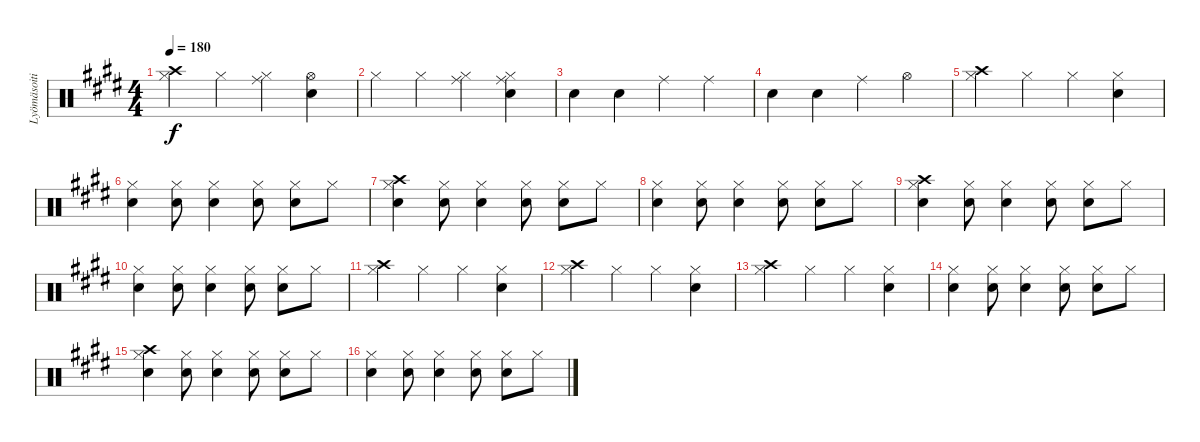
\track ("Lyömäsoitin" "Lyömäsoiti") {instrument percussion}
\staff {score}
\articulation defaults
\ts (4 4)
\tempo 180
\clef neutral
\ks e
("Crash high (hit)" "Hi-Hat (closed)").4{dy f} "Hi-Hat (closed)".4 ("Ride (middle)" "Hi-Hat (closed)").4 ("Hi-Hat (open)" "Electric Snare (hit)").4 |
"Hi-Hat (closed)".4 "Hi-Hat (closed)".4 ("Ride (middle)" "Hi-Hat (closed)").4 ("Ride (middle)" "Hi-Hat (closed)" "Electric Snare (hit)").4 |
"Electric Snare (hit)".4 "Electric Snare (hit)".4 "Ride (middle)".4 "Ride (middle)".4 |
"Electric Snare (hit)".4 "Electric Snare (hit)".4 "Ride (middle)".4 "Hi-Hat (open)".4 |
("Crash high (hit)" "Hi-Hat (closed)").4 "Hi-Hat (closed)".4 "Hi-Hat (closed)".4 ("Hi-Hat (closed)" "Electric Snare (hit)").4 |
("Hi-Hat (closed)" "Electric Snare (hit)").4 ("Hi-Hat (closed)" "Electric Snare (hit)").8 ("Hi-Hat (closed)" "Electric Snare (hit)").4 ("Hi-Hat (closed)" "Electric Snare (hit)").8 ("Hi-Hat (closed)" "Electric Snare (hit)").8 "Hi-Hat (closed)".8 |
("Crash high (hit)" "Hi-Hat (closed)" "Electric Snare (hit)").4 ("Hi-Hat (closed)" "Electric Snare (hit)").8 ("Hi-Hat (closed)" "Electric Snare (hit)").4 ("Hi-Hat (closed)" "Electric Snare (hit)").8 ("Hi-Hat (closed)" "Electric Snare (hit)").8 "Hi-Hat (closed)".8 |
("Hi-Hat (closed)" "Electric Snare (hit)").4 ("Hi-Hat (closed)" "Electric Snare (hit)").8 ("Hi-Hat (closed)" "Electric Snare (hit)").4 ("Hi-Hat (closed)" "Electric Snare (hit)").8 ("Hi-Hat (closed)" "Electric Snare (hit)").8 "Hi-Hat (closed)".8 |
("Crash high (hit)" "Hi-Hat (closed)" "Electric Snare (hit)").4 ("Hi-Hat (closed)" "Electric Snare (hit)").8 ("Hi-Hat (closed)" "Electric Snare (hit)").4 ("Hi-Hat (closed)" "Electric Snare (hit)").8 ("Hi-Hat (closed)" "Electric Snare (hit)").8 "Hi-Hat (closed)".8 |
("Hi-Hat (closed)" "Electric Snare (hit)").4 ("Hi-Hat (closed)" "Electric Snare (hit)").8 ("Hi-Hat (closed)" "Electric Snare (hit)").4 ("Hi-Hat (closed)" "Electric Snare (hit)").8 ("Hi-Hat (closed)" "Electric Snare (hit)").8 "Hi-Hat (closed)".8 |
("Crash high (hit)" "Hi-Hat (closed)").4 "Hi-Hat (closed)".4 "Hi-Hat (closed)".4 ("Hi-Hat (closed)" "Electric Snare (hit)").4 |
("Crash high (hit)" "Hi-Hat (closed)").4 "Hi-Hat (closed)".4 "Hi-Hat (closed)".4 ("Hi-Hat (closed)" "Electric Snare (hit)").4 |
("Crash high (hit)" "Hi-Hat (closed)").4 "Hi-Hat (closed)".4 "Hi-Hat (closed)".4 ("Hi-Hat (closed)" "Electric Snare (hit)").4 |
("Hi-Hat (closed)" "Electric Snare (hit)").4 ("Hi-Hat (closed)" "Electric Snare (hit)").8 ("Hi-Hat (closed)" "Electric Snare (hit)").4 ("Hi-Hat (closed)" "Electric Snare (hit)").8 ("Hi-Hat (closed)" "Electric Snare (hit)").8 "Hi-Hat (closed)".8 |
("Crash high (hit)" "Hi-Hat (closed)" "Electric Snare (hit)").4 ("Hi-Hat (closed)" "Electric Snare (hit)").8 ("Hi-Hat (closed)" "Electric Snare (hit)").4 ("Hi-Hat (closed)" "Electric Snare (hit)").8 ("Hi-Hat (closed)" "Electric Snare (hit)").8 "Hi-Hat (closed)".8 |
("Hi-Hat (closed)" "Electric Snare (hit)").4 ("Hi-Hat (closed)" "Electric Snare (hit)").8 ("Hi-Hat (closed)" "Electric Snare (hit)").4 ("Hi-Hat (closed)" "Electric Snare (hit)").8 ("Hi-Hat (closed)" "Electric Snare (hit)").8 "Hi-Hat (closed)".8
